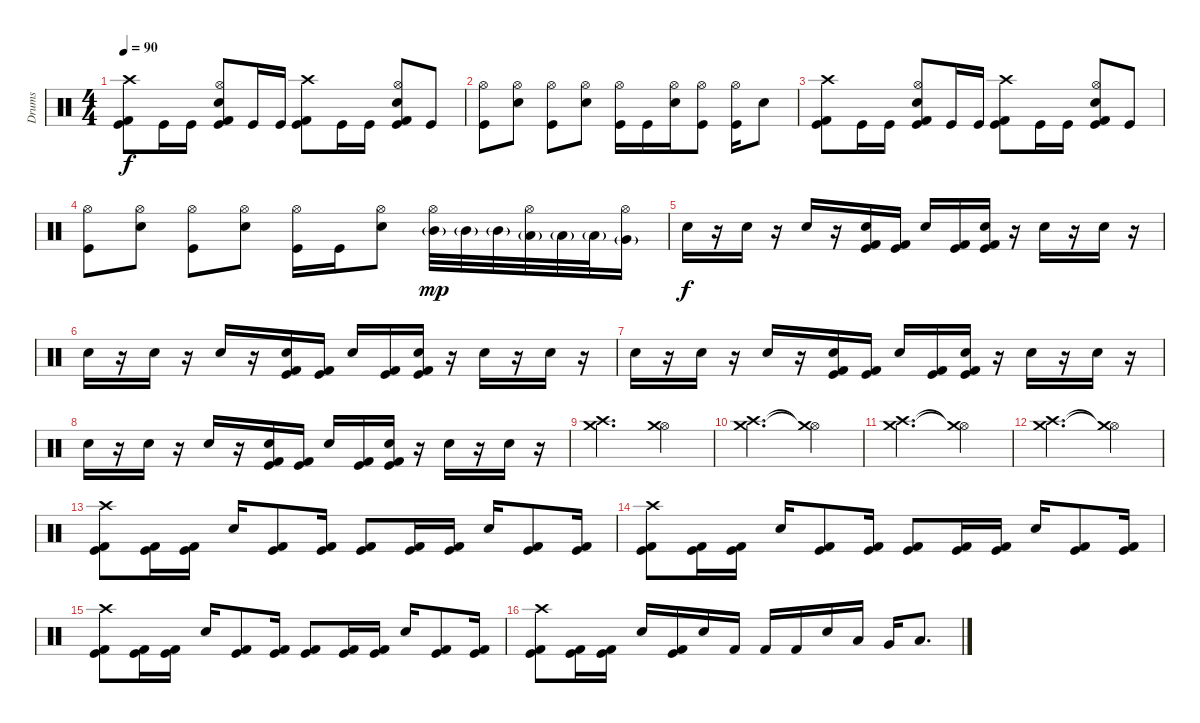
\track ("Drums" "Drums") {instrument percussion}
\staff {score}
\articulation defaults
\ts (4 4)
\tempo 90
\clef neutral
\ks c
("Crash high (hit)" "Kick (hit) 2" "Kick (hit)").8{dy f} "Kick (hit)".16 "Kick (hit)".16 ("Hi-Hat (open)" "Snare (hit) 2" "Kick (hit) 2" "Kick (hit)").8 "Kick (hit)".16 "Kick (hit)".16 ("Crash high (hit)" "Kick (hit) 2" "Kick (hit)").8 "Kick (hit)".16 "Kick (hit)".16 ("Hi-Hat (open)" "Snare (hit) 2" "Kick (hit) 2" "Kick (hit)").8 "Kick (hit)".8 |
("Hi-Hat (open)" "Kick (hit)").8 ("Hi-Hat (open)" "Snare (hit) 2").8 ("Hi-Hat (open)" "Kick (hit)").8 ("Hi-Hat (open)" "Snare (hit) 2").8 ("Hi-Hat (open)" "Kick (hit)").16 "Kick (hit)".16 ("Hi-Hat (open)" "Snare (hit) 2").16 ("Hi-Hat (open)" "Kick (hit)").8 ("Hi-Hat (open)" "Kick (hit)").16 "Snare (hit) 2".8 |
("Crash high (hit)" "Kick (hit) 2" "Kick (hit)").8 "Kick (hit)".16 "Kick (hit)".16 ("Hi-Hat (open)" "Snare (hit) 2" "Kick (hit) 2" "Kick (hit)").8 "Kick (hit)".16 "Kick (hit)".16 ("Crash high (hit)" "Kick (hit) 2" "Kick (hit)").8 "Kick (hit)".16 "Kick (hit)".16 ("Hi-Hat (open)" "Snare (hit) 2" "Kick (hit) 2" "Kick (hit)").8 "Kick (hit)".8 |
("Hi-Hat (open)" "Kick (hit)").8 ("Hi-Hat (open)" "Snare (hit) 2").8 ("Hi-Hat (open)" "Kick (hit)").8 ("Hi-Hat (open)" "Snare (hit) 2").8 ("Hi-Hat (open)" "Kick (hit)").16 "Kick (hit)".16 ("Hi-Hat (open)" "Snare (hit) 2").8 ("Hi-Hat (open)" "Mid Tom (hit)"{g}).32{dy mp} "Mid Tom (hit)"{g}.32 "Mid Tom (hit)"{g}.32 ("Hi-Hat (open)" "Low Tom (hit)"{g}).32 "Low Tom (hit)"{g}.32 "Low Tom (hit)"{g}.32 ("Hi-Hat (open)" "Very Low Tom (hit)"{g}).16 |
"Snare (hit) 2".16{dy f} r.16 "Snare (hit) 2".16 r.16 "Snare (hit) 2".16 r.16 ("Snare (hit) 2" "Kick (hit) 2" "Kick (hit)").16 ("Kick (hit) 2" "Kick (hit)").16 "Snare (hit) 2".16 ("Kick (hit) 2" "Kick (hit)").16 ("Snare (hit) 2" "Kick (hit) 2" "Kick (hit)").16 r.16 "Snare (hit) 2".16 r.16 "Snare (hit) 2".16 r.16 |
"Snare (hit) 2".16 r.16 "Snare (hit) 2".16 r.16 "Snare (hit) 2".16 r.16 ("Snare (hit) 2" "Kick (hit) 2" "Kick (hit)").16 ("Kick (hit) 2" "Kick (hit)").16 "Snare (hit) 2".16 ("Kick (hit) 2" "Kick (hit)").16 ("Snare (hit) 2" "Kick (hit) 2" "Kick (hit)").16 r.16 "Snare (hit) 2".16 r.16 "Snare (hit) 2".16 r.16 |
"Snare (hit) 2".16 r.16 "Snare (hit) 2".16 r.16 "Snare (hit) 2".16 r.16 ("Snare (hit) 2" "Kick (hit) 2" "Kick (hit)").16 ("Kick (hit) 2" "Kick (hit)").16 "Snare (hit) 2".16 ("Kick (hit) 2" "Kick (hit)").16 ("Snare (hit) 2" "Kick (hit) 2" "Kick (hit)").16 r.16 "Snare (hit) 2".16 r.16 "Snare (hit) 2".16 r.16 |
"Snare (hit) 2".16 r.16 "Snare (hit) 2".16 r.16 "Snare (hit) 2".16 r.16 ("Snare (hit) 2" "Kick (hit) 2" "Kick (hit)").16 ("Kick (hit) 2" "Kick (hit)").16 "Snare (hit) 2".16 ("Kick (hit) 2" "Kick (hit)").16 ("Snare (hit) 2" "Kick (hit) 2" "Kick (hit)").16 r.16 "Snare (hit) 2".16 r.16 "Snare (hit) 2".16 r.16 |
("Crash high (hit)" "Crash medium (hit)").2{d} ("Hi-Hat (open)" "Crash medium (hit)").4 |
("Crash high (hit)" "Crash medium (hit)").2{d} ("Hi-Hat (open)"{t} "Crash medium (hit)"{t}).4 |
("Crash high (hit)" "Crash medium (hit)").2{d} ("Hi-Hat (open)"{t} "Crash medium (hit)"{t}).4 |
("Crash high (hit)" "Crash medium (hit)").2{d} ("Hi-Hat (open)"{t} "Crash medium (hit)"{t}).4 |
("Crash high (hit)" "Kick (hit) 2" "Kick (hit)").8 ("Kick (hit) 2" "Kick (hit)").16 ("Kick (hit) 2" "Kick (hit)").16 "Snare (hit) 2".16 ("Kick (hit) 2" "Kick (hit)").8 ("Kick (hit) 2" "Kick (hit)").16 ("Kick (hit) 2" "Kick (hit)").8 ("Kick (hit) 2" "Kick (hit)").16 ("Kick (hit) 2" "Kick (hit)").16 "Snare (hit) 2".16 ("Kick (hit) 2" "Kick (hit)").8 ("Kick (hit) 2" "Kick (hit)").16 |
("Crash high (hit)" "Kick (hit) 2" "Kick (hit)").8 ("Kick (hit) 2" "Kick (hit)").16 ("Kick (hit) 2" "Kick (hit)").16 "Snare (hit) 2".16 ("Kick (hit) 2" "Kick (hit)").8 ("Kick (hit) 2" "Kick (hit)").16 ("Kick (hit) 2" "Kick (hit)").8 ("Kick (hit) 2" "Kick (hit)").16 ("Kick (hit) 2" "Kick (hit)").16 "Snare (hit) 2".16 ("Kick (hit) 2" "Kick (hit)").8 ("Kick (hit) 2" "Kick (hit)").16 |
("Crash high (hit)" "Kick (hit) 2" "Kick (hit)").8 ("Kick (hit) 2" "Kick (hit)").16 ("Kick (hit) 2" "Kick (hit)").16 "Snare (hit) 2".16 ("Kick (hit) 2" "Kick (hit)").8 ("Kick (hit) 2" "Kick (hit)").16 ("Kick (hit) 2" "Kick (hit)").8 ("Kick (hit) 2" "Kick (hit)").16 ("Kick (hit) 2" "Kick (hit)").16 "Snare (hit) 2".16 ("Kick (hit) 2" "Kick (hit)").8 ("Kick (hit) 2" "Kick (hit)").16 |
("Crash high (hit)" "Kick (hit) 2" "Kick (hit)").8 ("Kick (hit) 2" "Kick (hit)").16 ("Kick (hit) 2" "Kick (hit)").16 "Snare (hit) 2".16 ("Kick (hit) 2" "Kick (hit)").16 "Snare (hit) 2".16 "Kick (hit) 2".16 "Kick (hit) 2".16 "Kick (hit) 2".16 "Snare (hit) 2".16 "Low Tom (hit)".16 "Very Low Tom (hit)".16 "Low Floor Tom (hit)".8{d}
